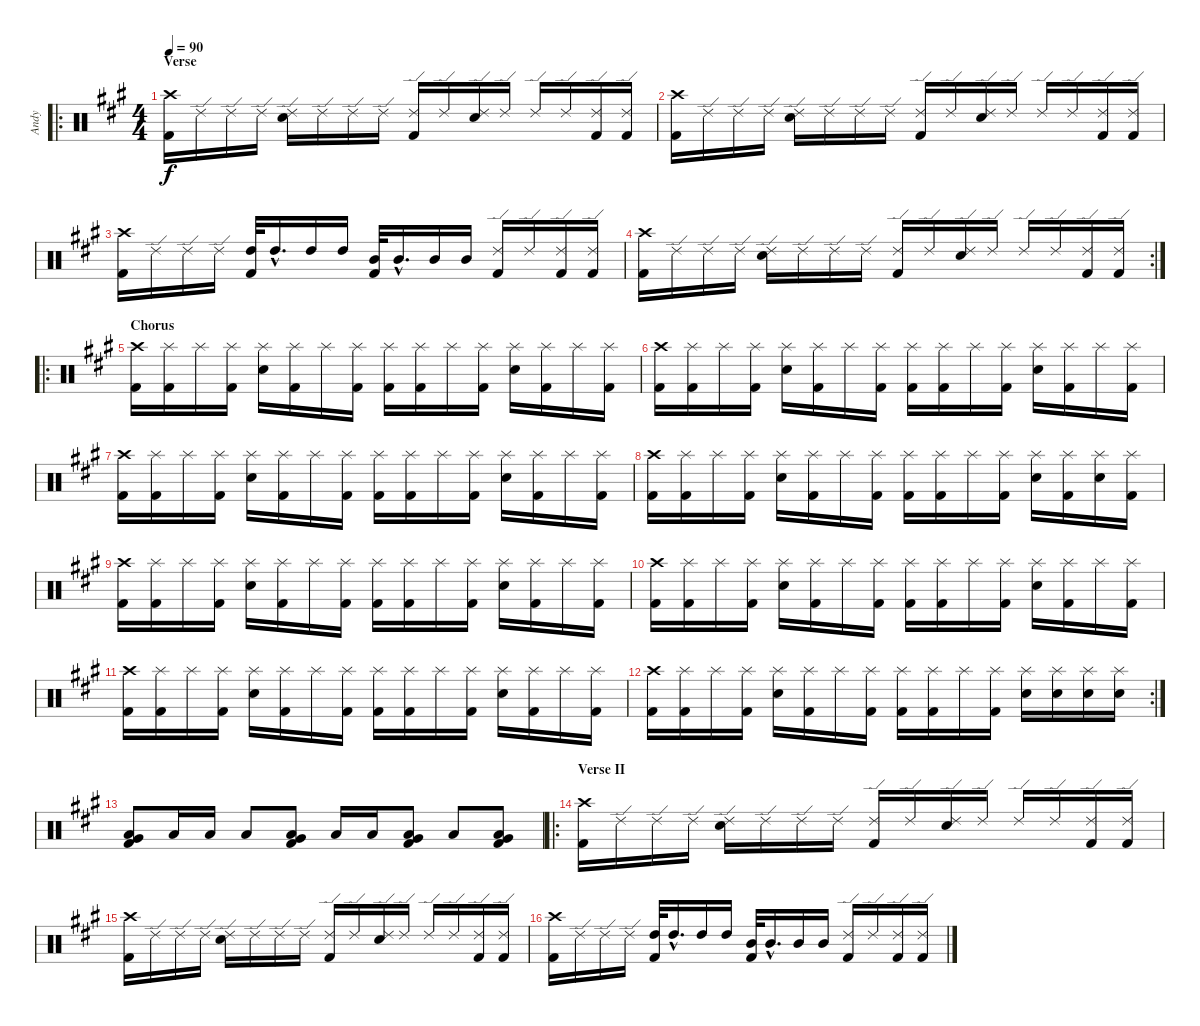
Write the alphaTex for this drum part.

\track ("Andy" "Andy") {instrument percussion}
\staff {score}
\articulation defaults
\ro
\ts (4 4)
\section ("" "Verse")
\tempo 90
\clef neutral
\ks f#minor
("Crash high (hit)" "Kick (hit) 2").16{dy f} "Ride (edge) 2".16 "Ride (edge) 2".16 "Ride (edge) 2".16 ("Ride (edge) 2" "Snare (hit) 2").16 "Ride (edge) 2".16 "Ride (edge) 2".16 "Ride (edge) 2".16 ("Ride (edge) 2" "Kick (hit) 2").16 "Ride (edge) 2".16 ("Ride (edge) 2" "Snare (hit) 2").16 "Ride (edge) 2".16 "Ride (edge) 2".16 "Ride (edge) 2".16 ("Ride (edge) 2" "Kick (hit) 2").16 ("Ride (edge) 2" "Kick (hit) 2").16 |
("Crash high (hit)" "Kick (hit) 2").16 "Ride (edge) 2".16 "Ride (edge) 2".16 "Ride (edge) 2".16 ("Ride (edge) 2" "Snare (hit) 2").16 "Ride (edge) 2".16 "Ride (edge) 2".16 "Ride (edge) 2".16 ("Ride (edge) 2" "Kick (hit) 2").16 "Ride (edge) 2".16 ("Ride (edge) 2" "Snare (hit) 2").16 "Ride (edge) 2".16 "Ride (edge) 2".16 "Ride (edge) 2".16 ("Ride (edge) 2" "Kick (hit) 2").16 ("Ride (edge) 2" "Kick (hit) 2").16 |
("Crash high (hit)" "Kick (hit) 2").16 "Ride (edge) 2".16 "Ride (edge) 2".16 "Ride (edge) 2".16 ("High Tom (hit)" "Kick (hit) 2").32 "High Tom (hit)"{hac}.16{d} "High Tom (hit)".16 "High Tom (hit)".16 ("Mid Tom (hit)" "Kick (hit) 2").32 "Mid Tom (hit)"{hac}.16{d} "Mid Tom (hit)".16 "Mid Tom (hit)".16 ("Ride (edge) 2" "Kick (hit) 2").16 "Ride (edge) 2".16 ("Ride (edge) 2" "Kick (hit) 2").16 ("Ride (edge) 2" "Kick (hit) 2").16 |
\rc 2
("Crash high (hit)" "Kick (hit) 2").16 "Ride (edge) 2".16 "Ride (edge) 2".16 "Ride (edge) 2".16 ("Ride (edge) 2" "Snare (hit) 2").16 "Ride (edge) 2".16 "Ride (edge) 2".16 "Ride (edge) 2".16 ("Ride (edge) 2" "Kick (hit) 2").16 "Ride (edge) 2".16 ("Ride (edge) 2" "Snare (hit) 2").16 "Ride (edge) 2".16 "Ride (edge) 2".16 "Ride (edge) 2".16 ("Ride (edge) 2" "Kick (hit) 2").16 ("Ride (edge) 2" "Kick (hit) 2").16 |
\ro
\section ("" "Chorus")
("Crash high (hit)" "Kick (hit) 2").16 ("Splash (hit)" "Kick (hit) 2").16 "Splash (hit)".16 ("Splash (hit)" "Kick (hit) 2").16 ("Splash (hit)" "Snare (hit) 2").16 ("Splash (hit)" "Kick (hit) 2").16 "Splash (hit)".16 ("Splash (hit)" "Kick (hit) 2").16 ("Splash (hit)" "Kick (hit) 2").16 ("Splash (hit)" "Kick (hit) 2").16 "Splash (hit)".16 ("Splash (hit)" "Kick (hit) 2").16 ("Splash (hit)" "Snare (hit) 2").16 ("Splash (hit)" "Kick (hit) 2").16 "Splash (hit)".16 ("Splash (hit)" "Kick (hit) 2").16 |
("Crash high (hit)" "Kick (hit) 2").16 ("Splash (hit)" "Kick (hit) 2").16 "Splash (hit)".16 ("Splash (hit)" "Kick (hit) 2").16 ("Splash (hit)" "Snare (hit) 2").16 ("Splash (hit)" "Kick (hit) 2").16 "Splash (hit)".16 ("Splash (hit)" "Kick (hit) 2").16 ("Splash (hit)" "Kick (hit) 2").16 ("Splash (hit)" "Kick (hit) 2").16 "Splash (hit)".16 ("Splash (hit)" "Kick (hit) 2").16 ("Splash (hit)" "Snare (hit) 2").16 ("Splash (hit)" "Kick (hit) 2").16 "Splash (hit)".16 ("Splash (hit)" "Kick (hit) 2").16 |
("Crash high (hit)" "Kick (hit) 2").16 ("Splash (hit)" "Kick (hit) 2").16 "Splash (hit)".16 ("Splash (hit)" "Kick (hit) 2").16 ("Splash (hit)" "Snare (hit) 2").16 ("Splash (hit)" "Kick (hit) 2").16 "Splash (hit)".16 ("Splash (hit)" "Kick (hit) 2").16 ("Splash (hit)" "Kick (hit) 2").16 ("Splash (hit)" "Kick (hit) 2").16 "Splash (hit)".16 ("Splash (hit)" "Kick (hit) 2").16 ("Splash (hit)" "Snare (hit) 2").16 ("Splash (hit)" "Kick (hit) 2").16 "Splash (hit)".16 ("Splash (hit)" "Kick (hit) 2").16 |
("Crash high (hit)" "Kick (hit) 2").16 ("Splash (hit)" "Kick (hit) 2").16 "Splash (hit)".16 ("Splash (hit)" "Kick (hit) 2").16 ("Splash (hit)" "Snare (hit) 2").16 ("Splash (hit)" "Kick (hit) 2").16 "Splash (hit)".16 ("Splash (hit)" "Kick (hit) 2").16 ("Splash (hit)" "Kick (hit) 2").16 ("Splash (hit)" "Kick (hit) 2").16 "Splash (hit)".16 ("Splash (hit)" "Kick (hit) 2").16 ("Splash (hit)" "Snare (hit) 2").16 ("Splash (hit)" "Kick (hit) 2").16 ("Splash (hit)" "Snare (hit) 2").16 ("Splash (hit)" "Kick (hit) 2").16 |
("Crash high (hit)" "Kick (hit) 2").16 ("Splash (hit)" "Kick (hit) 2").16 "Splash (hit)".16 ("Splash (hit)" "Kick (hit) 2").16 ("Splash (hit)" "Snare (hit) 2").16 ("Splash (hit)" "Kick (hit) 2").16 "Splash (hit)".16 ("Splash (hit)" "Kick (hit) 2").16 ("Splash (hit)" "Kick (hit) 2").16 ("Splash (hit)" "Kick (hit) 2").16 "Splash (hit)".16 ("Splash (hit)" "Kick (hit) 2").16 ("Splash (hit)" "Snare (hit) 2").16 ("Splash (hit)" "Kick (hit) 2").16 "Splash (hit)".16 ("Splash (hit)" "Kick (hit) 2").16 |
("Crash high (hit)" "Kick (hit) 2").16 ("Splash (hit)" "Kick (hit) 2").16 "Splash (hit)".16 ("Splash (hit)" "Kick (hit) 2").16 ("Splash (hit)" "Snare (hit) 2").16 ("Splash (hit)" "Kick (hit) 2").16 "Splash (hit)".16 ("Splash (hit)" "Kick (hit) 2").16 ("Splash (hit)" "Kick (hit) 2").16 ("Splash (hit)" "Kick (hit) 2").16 "Splash (hit)".16 ("Splash (hit)" "Kick (hit) 2").16 ("Splash (hit)" "Snare (hit) 2").16 ("Splash (hit)" "Kick (hit) 2").16 "Splash (hit)".16 ("Splash (hit)" "Kick (hit) 2").16 |
("Crash high (hit)" "Kick (hit) 2").16 ("Splash (hit)" "Kick (hit) 2").16 "Splash (hit)".16 ("Splash (hit)" "Kick (hit) 2").16 ("Splash (hit)" "Snare (hit) 2").16 ("Splash (hit)" "Kick (hit) 2").16 "Splash (hit)".16 ("Splash (hit)" "Kick (hit) 2").16 ("Splash (hit)" "Kick (hit) 2").16 ("Splash (hit)" "Kick (hit) 2").16 "Splash (hit)".16 ("Splash (hit)" "Kick (hit) 2").16 ("Splash (hit)" "Snare (hit) 2").16 ("Splash (hit)" "Kick (hit) 2").16 "Splash (hit)".16 ("Splash (hit)" "Kick (hit) 2").16 |
\rc 2
("Crash high (hit)" "Kick (hit) 2").16 ("Splash (hit)" "Kick (hit) 2").16 "Splash (hit)".16 ("Splash (hit)" "Kick (hit) 2").16 ("Splash (hit)" "Snare (hit) 2").16 ("Splash (hit)" "Kick (hit) 2").16 "Splash (hit)".16 ("Splash (hit)" "Kick (hit) 2").16 ("Splash (hit)" "Kick (hit) 2").16 ("Splash (hit)" "Kick (hit) 2").16 "Splash (hit)".16 ("Splash (hit)" "Kick (hit) 2").16 ("Splash (hit)" "Snare (hit) 2").16 ("Splash (hit)" "Snare (hit) 2").16 ("Splash (hit)" "Snare (hit) 2").16 ("Splash (hit)" "Snare (hit) 2").16 |
("Low Floor Tom (hit)" "Very Low Tom (hit)" "Kick (hit) 2").8 "Low Floor Tom (hit)".16 "Low Floor Tom (hit)".16 "Low Floor Tom (hit)".8 ("Low Floor Tom (hit)" "Very Low Tom (hit)" "Kick (hit) 2").8 "Low Floor Tom (hit)".16 "Low Floor Tom (hit)".16 ("Low Floor Tom (hit)" "Very Low Tom (hit)" "Kick (hit) 2").8 "Low Floor Tom (hit)".8 ("Low Floor Tom (hit)" "Very Low Tom (hit)" "Kick (hit) 2").8 |
\ro
\section ("" "Verse II")
("Crash high (hit)" "Kick (hit) 2").16 "Ride (edge) 2".16 "Ride (edge) 2".16 "Ride (edge) 2".16 ("Ride (edge) 2" "Snare (hit) 2").16 "Ride (edge) 2".16 "Ride (edge) 2".16 "Ride (edge) 2".16 ("Ride (edge) 2" "Kick (hit) 2").16 "Ride (edge) 2".16 ("Ride (edge) 2" "Snare (hit) 2").16 "Ride (edge) 2".16 "Ride (edge) 2".16 "Ride (edge) 2".16 ("Ride (edge) 2" "Kick (hit) 2").16 ("Ride (edge) 2" "Kick (hit) 2").16 |
("Crash high (hit)" "Kick (hit) 2").16 "Ride (edge) 2".16 "Ride (edge) 2".16 "Ride (edge) 2".16 ("Ride (edge) 2" "Snare (hit) 2").16 "Ride (edge) 2".16 "Ride (edge) 2".16 "Ride (edge) 2".16 ("Ride (edge) 2" "Kick (hit) 2").16 "Ride (edge) 2".16 ("Ride (edge) 2" "Snare (hit) 2").16 "Ride (edge) 2".16 "Ride (edge) 2".16 "Ride (edge) 2".16 ("Ride (edge) 2" "Kick (hit) 2").16 ("Ride (edge) 2" "Kick (hit) 2").16 |
("Crash high (hit)" "Kick (hit) 2").16 "Ride (edge) 2".16 "Ride (edge) 2".16 "Ride (edge) 2".16 ("High Tom (hit)" "Kick (hit) 2").32 "High Tom (hit)"{hac}.16{d} "High Tom (hit)".16 "High Tom (hit)".16 ("Mid Tom (hit)" "Kick (hit) 2").32 "Mid Tom (hit)"{hac}.16{d} "Mid Tom (hit)".16 "Mid Tom (hit)".16 ("Ride (edge) 2" "Kick (hit) 2").16 "Ride (edge) 2".16 ("Ride (edge) 2" "Kick (hit) 2").16 ("Ride (edge) 2" "Kick (hit) 2").16
